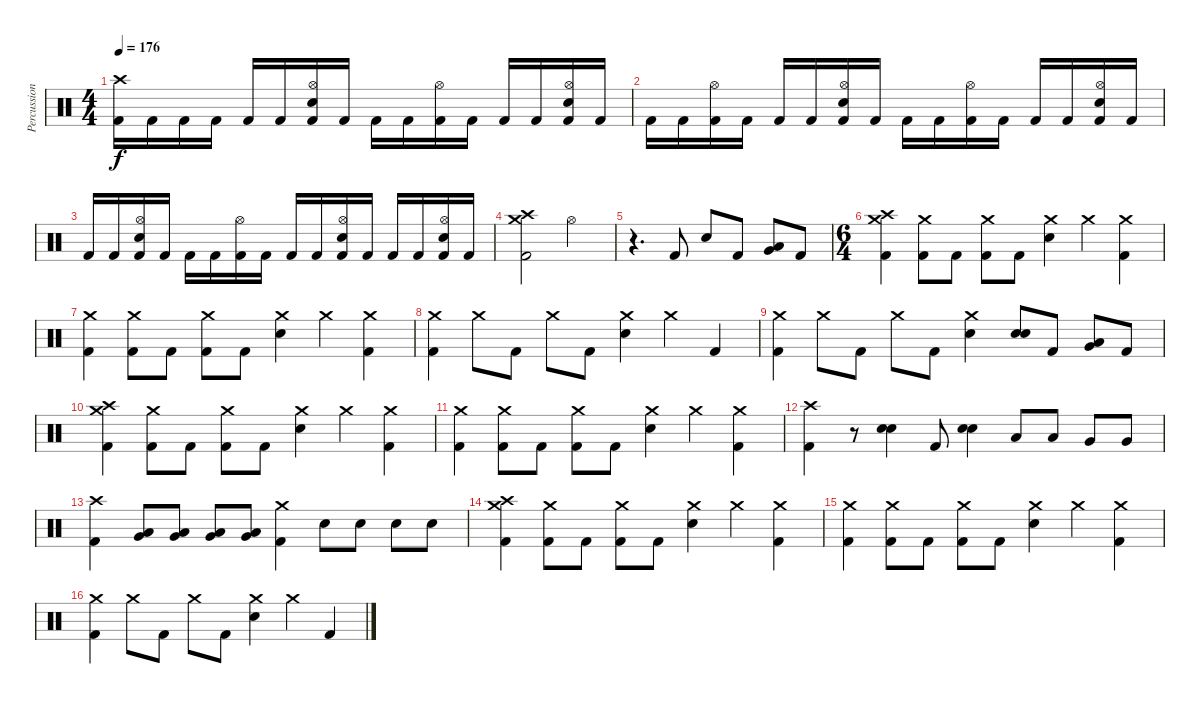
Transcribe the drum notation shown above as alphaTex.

\track ("Percussion" "Percussion") {instrument percussion}
\staff {score}
\articulation defaults
\ts (4 4)
\tempo 176
\clef neutral
\ks c
("Crash high (hit)" "Kick (hit) 2").16{dy f} "Kick (hit) 2".16 "Kick (hit) 2".16 "Kick (hit) 2".16 "Kick (hit) 2".16 "Kick (hit) 2".16 ("Hi-Hat (open)" "Snare (hit) 2" "Kick (hit) 2").16 "Kick (hit) 2".16 "Kick (hit) 2".16 "Kick (hit) 2".16 ("Hi-Hat (open)" "Kick (hit) 2").16 "Kick (hit) 2".16 "Kick (hit) 2".16 "Kick (hit) 2".16 ("Hi-Hat (open)" "Snare (hit) 2" "Kick (hit) 2").16 "Kick (hit) 2".16 |
"Kick (hit) 2".16 "Kick (hit) 2".16 ("Hi-Hat (open)" "Kick (hit) 2").16 "Kick (hit) 2".16 "Kick (hit) 2".16 "Kick (hit) 2".16 ("Hi-Hat (open)" "Snare (hit) 2" "Kick (hit) 2").16 "Kick (hit) 2".16 "Kick (hit) 2".16 "Kick (hit) 2".16 ("Hi-Hat (open)" "Kick (hit) 2").16 "Kick (hit) 2".16 "Kick (hit) 2".16 "Kick (hit) 2".16 ("Hi-Hat (open)" "Snare (hit) 2" "Kick (hit) 2").16 "Kick (hit) 2".16 |
"Kick (hit) 2".16 "Kick (hit) 2".16 ("Hi-Hat (open)" "Snare (hit) 2" "Kick (hit) 2").16 "Kick (hit) 2".16 "Kick (hit) 2".16 "Kick (hit) 2".16 ("Hi-Hat (open)" "Kick (hit) 2").16 "Kick (hit) 2".16 "Kick (hit) 2".16 "Kick (hit) 2".16 ("Hi-Hat (open)" "Snare (hit) 2" "Kick (hit) 2").16 "Kick (hit) 2".16 "Kick (hit) 2".16 "Kick (hit) 2".16 ("Hi-Hat (open)" "Snare (hit) 2" "Kick (hit) 2").16 "Kick (hit) 2".16 |
("Crash high (hit)" "Crash medium (hit)" "Kick (hit) 2").2 "Hi-Hat (open)".2 |
r.4{d} "Kick (hit) 2".8 "Snare (hit) 2".8 "Kick (hit) 2".8 ("Very Low Tom (hit)" "Low Tom (hit)").8 "Kick (hit) 2".8 |
\ts (6 4)
("Crash high (hit)" "Crash medium (hit)" "Kick (hit) 2").4 ("Crash medium (hit)" "Kick (hit) 2").8 "Kick (hit) 2".8 ("Crash medium (hit)" "Kick (hit) 2").8 "Kick (hit) 2".8 ("Crash medium (hit)" "Snare (hit) 2").4 "Crash medium (hit)".4 ("Crash medium (hit)" "Kick (hit) 2").4 |
("Crash medium (hit)" "Kick (hit) 2").4 ("Crash medium (hit)" "Kick (hit) 2").8 "Kick (hit) 2".8 ("Crash medium (hit)" "Kick (hit) 2").8 "Kick (hit) 2".8 ("Crash medium (hit)" "Snare (hit) 2").4 "Crash medium (hit)".4 ("Crash medium (hit)" "Kick (hit) 2").4 |
("Crash medium (hit)" "Kick (hit) 2").4 "Crash medium (hit)".8 "Kick (hit) 2".8 "Crash medium (hit)".8 "Kick (hit) 2".8 ("Crash medium (hit)" "Snare (hit) 2").4 "Crash medium (hit)".4 "Kick (hit) 2".4 |
("Crash medium (hit)" "Kick (hit) 2").4 "Crash medium (hit)".8 "Kick (hit) 2".8 "Crash medium (hit)".8 "Kick (hit) 2".8 ("Crash medium (hit)" "Snare (hit) 2").4 ("Snare (hit) 2" "Snare (hit) 2").8 "Kick (hit) 2".8 ("Very Low Tom (hit)" "Low Tom (hit)").8 "Kick (hit) 2".8 |
("Crash high (hit)" "Crash medium (hit)" "Kick (hit) 2").4 ("Crash medium (hit)" "Kick (hit) 2").8 "Kick (hit) 2".8 ("Crash medium (hit)" "Kick (hit) 2").8 "Kick (hit) 2".8 ("Crash medium (hit)" "Snare (hit) 2").4 "Crash medium (hit)".4 ("Crash medium (hit)" "Kick (hit) 2").4 |
("Crash medium (hit)" "Kick (hit) 2").4 ("Crash medium (hit)" "Kick (hit) 2").8 "Kick (hit) 2".8 ("Crash medium (hit)" "Kick (hit) 2").8 "Kick (hit) 2".8 ("Crash medium (hit)" "Snare (hit) 2").4 "Crash medium (hit)".4 ("Crash medium (hit)" "Kick (hit) 2").4 |
("Crash high (hit)" "Kick (hit) 2").4 r.8 ("Snare (hit) 2" "Snare (hit) 2").4 "Kick (hit) 2".8 ("Snare (hit) 2" "Snare (hit) 2").4 "Low Tom (hit)".8 "Low Tom (hit)".8 "Very Low Tom (hit)".8 "Very Low Tom (hit)".8 |
("Crash high (hit)" "Kick (hit) 2").4 ("Low Floor Tom (hit)" "Very Low Tom (hit)").8 ("Low Floor Tom (hit)" "Very Low Tom (hit)").8 ("Low Floor Tom (hit)" "Very Low Tom (hit)").8 ("Low Floor Tom (hit)" "Very Low Tom (hit)").8 ("Crash medium (hit)" "Kick (hit) 2").4 "Snare (hit) 2".8 "Snare (hit) 2".8 "Snare (hit) 2".8 "Snare (hit) 2".8 |
("Crash high (hit)" "Crash medium (hit)" "Kick (hit) 2").4 ("Crash medium (hit)" "Kick (hit) 2").8 "Kick (hit) 2".8 ("Crash medium (hit)" "Kick (hit) 2").8 "Kick (hit) 2".8 ("Crash medium (hit)" "Snare (hit) 2").4 "Crash medium (hit)".4 ("Crash medium (hit)" "Kick (hit) 2").4 |
("Crash medium (hit)" "Kick (hit) 2").4 ("Crash medium (hit)" "Kick (hit) 2").8 "Kick (hit) 2".8 ("Crash medium (hit)" "Kick (hit) 2").8 "Kick (hit) 2".8 ("Crash medium (hit)" "Snare (hit) 2").4 "Crash medium (hit)".4 ("Crash medium (hit)" "Kick (hit) 2").4 |
("Crash medium (hit)" "Kick (hit) 2").4 "Crash medium (hit)".8 "Kick (hit) 2".8 "Crash medium (hit)".8 "Kick (hit) 2".8 ("Crash medium (hit)" "Snare (hit) 2").4 "Crash medium (hit)".4 "Kick (hit) 2".4
